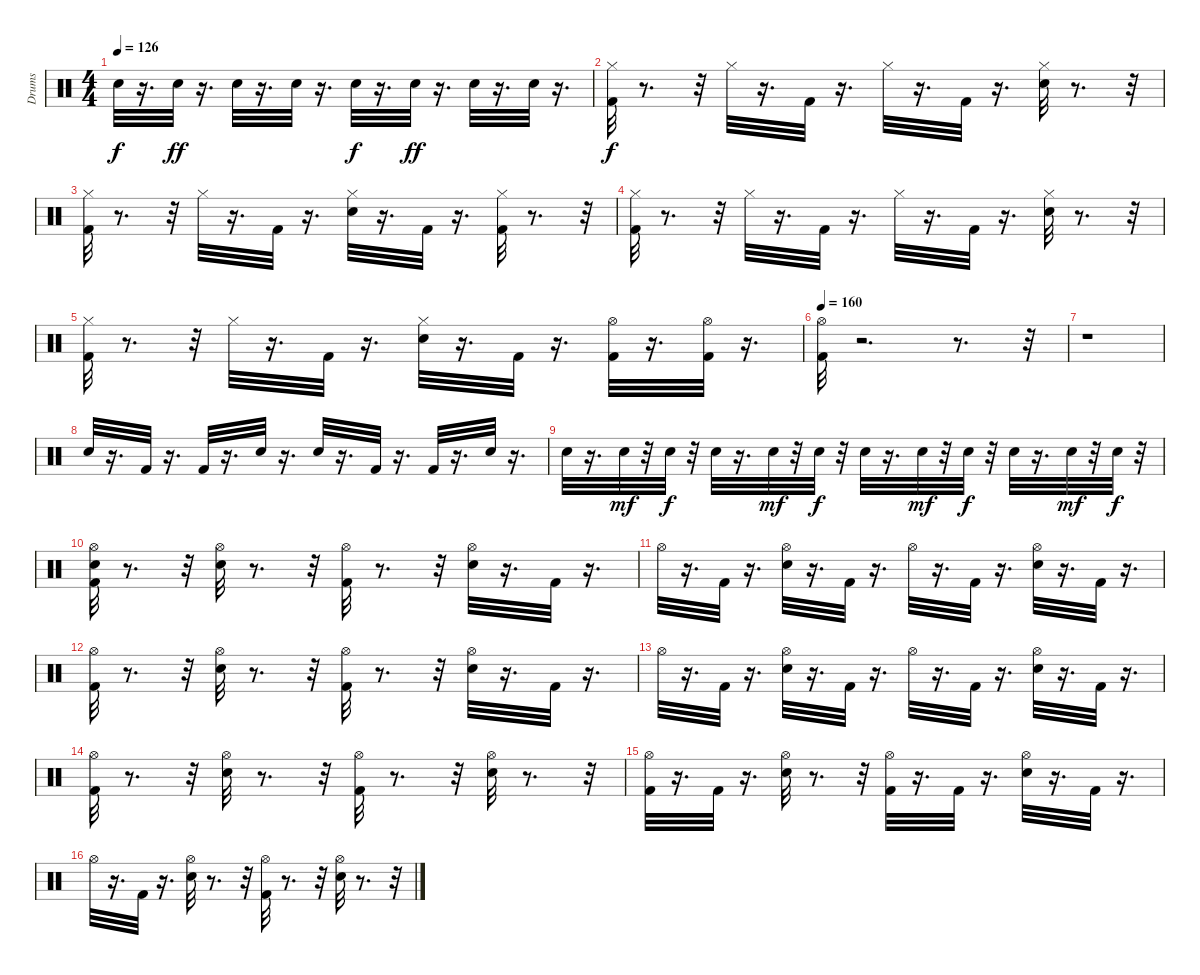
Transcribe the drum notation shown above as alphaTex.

\track ("Drums" "Drums") {instrument percussion}
\staff {score}
\articulation defaults
\ts (4 4)
\tempo 126
\clef neutral
\ks c "Snare (hit) 2".32{dy f}
r.16{d} "Snare (hit) 2".32{dy ff} r.16{d} "Snare (hit) 2".32 r.16{d} "Snare (hit) 2".32 r.16{d} "Snare (hit) 2".32{dy f} r.16{d} "Snare (hit) 2".32{dy ff} r.16{d} "Snare (hit) 2".32 r.16{d} "Snare (hit) 2".32 r.16{d} |
("Kick (hit) 2" "Hi-Hat (closed)").32{dy f} r.8{d} r.32 "Hi-Hat (closed)".32 r.16{d} "Kick (hit) 2".32 r.16{d} "Hi-Hat (closed)".32 r.16{d} "Kick (hit) 2".32 r.16{d} ("Snare (hit) 2" "Hi-Hat (closed)").32 r.8{d} r.32 |
("Kick (hit) 2" "Hi-Hat (closed)").32 r.8{d} r.32 "Hi-Hat (closed)".32 r.16{d} "Kick (hit) 2".32 r.16{d} ("Snare (hit) 2" "Hi-Hat (closed)").32 r.16{d} "Kick (hit) 2".32 r.16{d} ("Kick (hit) 2" "Hi-Hat (closed)").32 r.8{d} r.32 |
("Kick (hit) 2" "Hi-Hat (closed)").32 r.8{d} r.32 "Hi-Hat (closed)".32 r.16{d} "Kick (hit) 2".32 r.16{d} "Hi-Hat (closed)".32 r.16{d} "Kick (hit) 2".32 r.16{d} ("Snare (hit) 2" "Hi-Hat (closed)").32 r.8{d} r.32 |
("Kick (hit) 2" "Hi-Hat (closed)").32 r.8{d} r.32 "Hi-Hat (closed)".32 r.16{d} "Kick (hit) 2".32 r.16{d} ("Snare (hit) 2" "Hi-Hat (closed)").32 r.16{d} "Kick (hit) 2".32 r.16{d} ("Kick (hit) 2" "Hi-Hat (open)").32 r.16{d} ("Kick (hit) 2" "Hi-Hat (open)").32 r.16{d} |
\tempo 160
("Kick (hit) 2" "Hi-Hat (open)").32 r.2{d} r.8{d} r.32 |
r.1 |
"Snare (hit) 2".32 r.16{d} "Kick (hit) 2".32 r.16{d} "Kick (hit) 2".32 r.16{d} "Snare (hit) 2".32 r.16{d} "Snare (hit) 2".32 r.16{d} "Kick (hit) 2".32 r.16{d} "Kick (hit) 2".32 r.16{d} "Snare (hit) 2".32 r.16{d} |
"Snare (hit) 2".32 r.16{d} "Snare (hit) 2".32{dy mf} r.32 "Snare (hit) 2".32{dy f} r.32 "Snare (hit) 2".32 r.16{d} "Snare (hit) 2".32{dy mf} r.32 "Snare (hit) 2".32{dy f} r.32 "Snare (hit) 2".32 r.16{d} "Snare (hit) 2".32{dy mf} r.32 "Snare (hit) 2".32{dy f} r.32 "Snare (hit) 2".32 r.16{d} "Snare (hit) 2".32{dy mf} r.32 "Snare (hit) 2".32{dy f} r.32 |
("Snare (hit) 2" "Kick (hit) 2" "Hi-Hat (open)").32 r.8{d} r.32 ("Snare (hit) 2" "Hi-Hat (open)").32 r.8{d} r.32 ("Kick (hit) 2" "Hi-Hat (open)").32 r.8{d} r.32 ("Snare (hit) 2" "Hi-Hat (open)").32 r.16{d} "Kick (hit) 2".32 r.16{d} |
"Hi-Hat (open)".32 r.16{d} "Kick (hit) 2".32 r.16{d} ("Snare (hit) 2" "Hi-Hat (open)").32 r.16{d} "Kick (hit) 2".32 r.16{d} "Hi-Hat (open)".32 r.16{d} "Kick (hit) 2".32 r.16{d} ("Snare (hit) 2" "Hi-Hat (open)").32 r.16{d} "Kick (hit) 2".32 r.16{d} |
("Kick (hit) 2" "Hi-Hat (open)").32 r.8{d} r.32 ("Snare (hit) 2" "Hi-Hat (open)").32 r.8{d} r.32 ("Kick (hit) 2" "Hi-Hat (open)").32 r.8{d} r.32 ("Snare (hit) 2" "Hi-Hat (open)").32 r.16{d} "Kick (hit) 2".32 r.16{d} |
"Hi-Hat (open)".32 r.16{d} "Kick (hit) 2".32 r.16{d} ("Snare (hit) 2" "Hi-Hat (open)").32 r.16{d} "Kick (hit) 2".32 r.16{d} "Hi-Hat (open)".32 r.16{d} "Kick (hit) 2".32 r.16{d} ("Snare (hit) 2" "Hi-Hat (open)").32 r.16{d} "Kick (hit) 2".32 r.16{d} |
("Kick (hit) 2" "Hi-Hat (open)").32 r.8{d} r.32 ("Snare (hit) 2" "Hi-Hat (open)").32 r.8{d} r.32 ("Kick (hit) 2" "Hi-Hat (open)").32 r.8{d} r.32 ("Snare (hit) 2" "Hi-Hat (open)").32 r.8{d} r.32 |
("Kick (hit) 2" "Hi-Hat (open)").32 r.16{d} "Kick (hit) 2".32 r.16{d} ("Snare (hit) 2" "Hi-Hat (open)").32 r.8{d} r.32 ("Kick (hit) 2" "Hi-Hat (open)").32 r.16{d} "Kick (hit) 2".32 r.16{d} ("Snare (hit) 2" "Hi-Hat (open)").32 r.16{d} "Kick (hit) 2".32 r.16{d} |
"Hi-Hat (open)".32 r.16{d} "Kick (hit) 2".32 r.16{d} ("Snare (hit) 2" "Hi-Hat (open)").32 r.8{d} r.32 ("Kick (hit) 2" "Hi-Hat (open)").32 r.8{d} r.32 ("Snare (hit) 2" "Hi-Hat (open)").32 r.8{d} r.32
